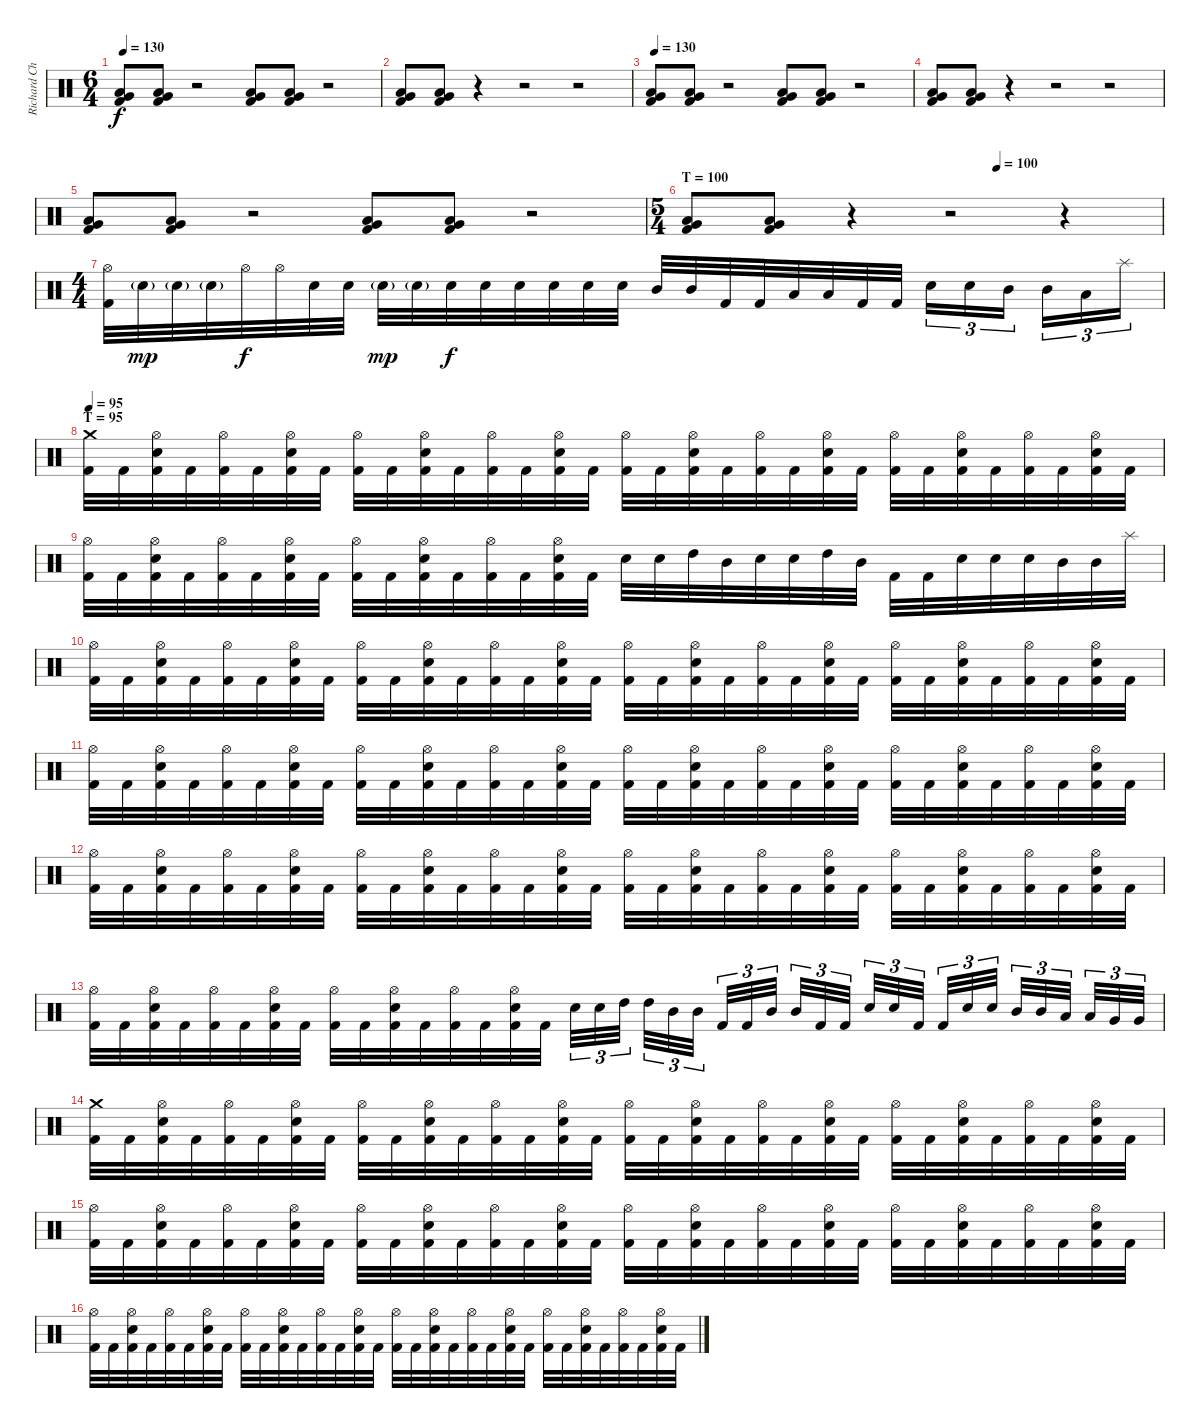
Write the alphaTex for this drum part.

\track ("Richard Christy" "Richard Ch") {instrument percussion}
\staff {score}
\articulation defaults
\ts (6 4)
\tempo 130
\clef neutral
\ks c
("Low Tom (hit)" "Very Low Tom (hit)" "Kick (hit) 2").8{dy f} ("Low Floor Tom (hit)" "Very Low Tom (hit)" "Kick (hit) 2").8 r.2 ("Low Tom (hit)" "Very Low Tom (hit)" "Kick (hit) 2").8 ("Low Floor Tom (hit)" "Very Low Tom (hit)" "Kick (hit) 2").8 r.2 |
("Low Tom (hit)" "Very Low Tom (hit)" "Kick (hit) 2").8 ("Low Floor Tom (hit)" "Very Low Tom (hit)" "Kick (hit) 2").8 r.4 r.2 r.2 |
\tempo 130
("Low Tom (hit)" "Very Low Tom (hit)" "Kick (hit) 2").8 ("Low Floor Tom (hit)" "Very Low Tom (hit)" "Kick (hit) 2").8 r.2 ("Low Tom (hit)" "Very Low Tom (hit)" "Kick (hit) 2").8 ("Low Floor Tom (hit)" "Very Low Tom (hit)" "Kick (hit) 2").8 r.2 |
("Low Tom (hit)" "Very Low Tom (hit)" "Kick (hit) 2").8 ("Low Floor Tom (hit)" "Very Low Tom (hit)" "Kick (hit) 2").8 r.4 r.2 r.2 |
("Low Tom (hit)" "Very Low Tom (hit)" "Kick (hit) 2").8 ("Low Floor Tom (hit)" "Very Low Tom (hit)" "Kick (hit) 2").8 r.2 ("Low Tom (hit)" "Very Low Tom (hit)" "Kick (hit) 2").8 ("Low Floor Tom (hit)" "Very Low Tom (hit)" "Kick (hit) 2").8 r.2 |
\ts (5 4)
\section ("" "T = 100")
\tempo (100 0.65)
("Low Tom (hit)" "Very Low Tom (hit)" "Kick (hit) 2").8 ("Low Floor Tom (hit)" "Very Low Tom (hit)" "Kick (hit) 2").8 r.4 r.2 r.4 |
\ts (4 4)
("Hi-Hat (open)" "Kick (hit) 2").32 "Electric Snare (hit)"{g}.32{dy mp} "Electric Snare (hit)"{g}.32 "Electric Snare (hit)"{g}.32 "Hi-Hat (open)".32{dy f} "Hi-Hat (open)".32 "Electric Snare (hit)".32 "Electric Snare (hit)".32 "Electric Snare (hit)"{g}.32{dy mp} "Electric Snare (hit)"{g}.32 "Electric Snare (hit)".32{dy f} "Electric Snare (hit)".32 "Electric Snare (hit)".32 "Electric Snare (hit)".32 "Electric Snare (hit)".32 "Electric Snare (hit)".32 "Mid Tom (hit)".32 "Mid Tom (hit)".32 "Kick (hit) 2".32 "Kick (hit) 2".32 "Low Tom (hit)".32 "Low Tom (hit)".32 "Kick (hit) 2".32 "Kick (hit) 2".32 "Electric Snare (hit)".16{tu (3 2)} "Electric Snare (hit)".16{tu (3 2)} "Mid Tom (hit)".16{tu (3 2)} "Mid Tom (hit)".16{tu (3 2)} "Low Tom (hit)".16{tu (3 2)} "Splash (hit)".16{tu (3 2)} |
\section ("" "T = 95")
\tempo 95
("Crash medium (hit)" "Kick (hit) 2").32 "Kick (hit) 2".32 ("Hi-Hat (open)" "Electric Snare (hit)" "Kick (hit) 2").32 "Kick (hit) 2".32 ("Hi-Hat (open)" "Kick (hit) 2").32 "Kick (hit) 2".32 ("Hi-Hat (open)" "Electric Snare (hit)" "Kick (hit) 2").32 "Kick (hit) 2".32 ("Hi-Hat (open)" "Kick (hit) 2").32 "Kick (hit) 2".32 ("Hi-Hat (open)" "Electric Snare (hit)" "Kick (hit) 2").32 "Kick (hit) 2".32 ("Hi-Hat (open)" "Kick (hit) 2").32 "Kick (hit) 2".32 ("Hi-Hat (open)" "Electric Snare (hit)" "Kick (hit) 2").32 "Kick (hit) 2".32 ("Hi-Hat (open)" "Kick (hit) 2").32 "Kick (hit) 2".32 ("Hi-Hat (open)" "Electric Snare (hit)" "Kick (hit) 2").32 "Kick (hit) 2".32 ("Hi-Hat (open)" "Kick (hit) 2").32 "Kick (hit) 2".32 ("Hi-Hat (open)" "Electric Snare (hit)" "Kick (hit) 2").32 "Kick (hit) 2".32 ("Hi-Hat (open)" "Kick (hit) 2").32 "Kick (hit) 2".32 ("Hi-Hat (open)" "Electric Snare (hit)" "Kick (hit) 2").32 "Kick (hit) 2".32 ("Hi-Hat (open)" "Kick (hit) 2").32 "Kick (hit) 2".32 ("Hi-Hat (open)" "Electric Snare (hit)" "Kick (hit) 2").32 "Kick (hit) 2".32 |
("Hi-Hat (open)" "Kick (hit) 2").32 "Kick (hit) 2".32 ("Hi-Hat (open)" "Electric Snare (hit)" "Kick (hit) 2").32 "Kick (hit) 2".32 ("Hi-Hat (open)" "Kick (hit) 2").32 "Kick (hit) 2".32 ("Hi-Hat (open)" "Electric Snare (hit)" "Kick (hit) 2").32 "Kick (hit) 2".32 ("Hi-Hat (open)" "Kick (hit) 2").32 "Kick (hit) 2".32 ("Hi-Hat (open)" "Electric Snare (hit)" "Kick (hit) 2").32 "Kick (hit) 2".32 ("Hi-Hat (open)" "Kick (hit) 2").32 "Kick (hit) 2".32 ("Hi-Hat (open)" "Electric Snare (hit)" "Kick (hit) 2").32 "Kick (hit) 2".32 "Electric Snare (hit)".32 "Electric Snare (hit)".32 "High Tom (hit)".32 "Mid Tom (hit)".32 "Electric Snare (hit)".32 "Electric Snare (hit)".32 "High Tom (hit)".32 "Mid Tom (hit)".32 "Kick (hit) 2".32 "Kick (hit) 2".32 "Electric Snare (hit)".32 "Electric Snare (hit)".32 "Electric Snare (hit)".32 "Mid Tom (hit)".32 "Mid Tom (hit)".32 "Splash (hit)".32 |
("Hi-Hat (open)" "Kick (hit) 2").32 "Kick (hit) 2".32 ("Hi-Hat (open)" "Electric Snare (hit)" "Kick (hit) 2").32 "Kick (hit) 2".32 ("Hi-Hat (open)" "Kick (hit) 2").32 "Kick (hit) 2".32 ("Hi-Hat (open)" "Electric Snare (hit)" "Kick (hit) 2").32 "Kick (hit) 2".32 ("Hi-Hat (open)" "Kick (hit) 2").32 "Kick (hit) 2".32 ("Hi-Hat (open)" "Electric Snare (hit)" "Kick (hit) 2").32 "Kick (hit) 2".32 ("Hi-Hat (open)" "Kick (hit) 2").32 "Kick (hit) 2".32 ("Hi-Hat (open)" "Electric Snare (hit)" "Kick (hit) 2").32 "Kick (hit) 2".32 ("Hi-Hat (open)" "Kick (hit) 2").32 "Kick (hit) 2".32 ("Hi-Hat (open)" "Electric Snare (hit)" "Kick (hit) 2").32 "Kick (hit) 2".32 ("Hi-Hat (open)" "Kick (hit) 2").32 "Kick (hit) 2".32 ("Hi-Hat (open)" "Electric Snare (hit)" "Kick (hit) 2").32 "Kick (hit) 2".32 ("Hi-Hat (open)" "Kick (hit) 2").32 "Kick (hit) 2".32 ("Hi-Hat (open)" "Electric Snare (hit)" "Kick (hit) 2").32 "Kick (hit) 2".32 ("Hi-Hat (open)" "Kick (hit) 2").32 "Kick (hit) 2".32 ("Hi-Hat (open)" "Electric Snare (hit)" "Kick (hit) 2").32 "Kick (hit) 2".32 |
("Hi-Hat (open)" "Kick (hit) 2").32 "Kick (hit) 2".32 ("Hi-Hat (open)" "Electric Snare (hit)" "Kick (hit) 2").32 "Kick (hit) 2".32 ("Hi-Hat (open)" "Kick (hit) 2").32 "Kick (hit) 2".32 ("Hi-Hat (open)" "Electric Snare (hit)" "Kick (hit) 2").32 "Kick (hit) 2".32 ("Hi-Hat (open)" "Kick (hit) 2").32 "Kick (hit) 2".32 ("Hi-Hat (open)" "Electric Snare (hit)" "Kick (hit) 2").32 "Kick (hit) 2".32 ("Hi-Hat (open)" "Kick (hit) 2").32 "Kick (hit) 2".32 ("Hi-Hat (open)" "Electric Snare (hit)" "Kick (hit) 2").32 "Kick (hit) 2".32 ("Hi-Hat (open)" "Kick (hit) 2").32 "Kick (hit) 2".32 ("Hi-Hat (open)" "Electric Snare (hit)" "Kick (hit) 2").32 "Kick (hit) 2".32 ("Hi-Hat (open)" "Kick (hit) 2").32 "Kick (hit) 2".32 ("Hi-Hat (open)" "Electric Snare (hit)" "Kick (hit) 2").32 "Kick (hit) 2".32 ("Hi-Hat (open)" "Kick (hit) 2").32 "Kick (hit) 2".32 ("Hi-Hat (open)" "Electric Snare (hit)" "Kick (hit) 2").32 "Kick (hit) 2".32 ("Hi-Hat (open)" "Kick (hit) 2").32 "Kick (hit) 2".32 ("Hi-Hat (open)" "Electric Snare (hit)" "Kick (hit) 2").32 "Kick (hit) 2".32 |
("Hi-Hat (open)" "Kick (hit) 2").32 "Kick (hit) 2".32 ("Hi-Hat (open)" "Electric Snare (hit)" "Kick (hit) 2").32 "Kick (hit) 2".32 ("Hi-Hat (open)" "Kick (hit) 2").32 "Kick (hit) 2".32 ("Hi-Hat (open)" "Electric Snare (hit)" "Kick (hit) 2").32 "Kick (hit) 2".32 ("Hi-Hat (open)" "Kick (hit) 2").32 "Kick (hit) 2".32 ("Hi-Hat (open)" "Electric Snare (hit)" "Kick (hit) 2").32 "Kick (hit) 2".32 ("Hi-Hat (open)" "Kick (hit) 2").32 "Kick (hit) 2".32 ("Hi-Hat (open)" "Electric Snare (hit)" "Kick (hit) 2").32 "Kick (hit) 2".32 ("Hi-Hat (open)" "Kick (hit) 2").32 "Kick (hit) 2".32 ("Hi-Hat (open)" "Electric Snare (hit)" "Kick (hit) 2").32 "Kick (hit) 2".32 ("Hi-Hat (open)" "Kick (hit) 2").32 "Kick (hit) 2".32 ("Hi-Hat (open)" "Electric Snare (hit)" "Kick (hit) 2").32 "Kick (hit) 2".32 ("Hi-Hat (open)" "Kick (hit) 2").32 "Kick (hit) 2".32 ("Hi-Hat (open)" "Electric Snare (hit)" "Kick (hit) 2").32 "Kick (hit) 2".32 ("Hi-Hat (open)" "Kick (hit) 2").32 "Kick (hit) 2".32 ("Hi-Hat (open)" "Electric Snare (hit)" "Kick (hit) 2").32 "Kick (hit) 2".32 |
("Hi-Hat (open)" "Kick (hit) 2").32 "Kick (hit) 2".32 ("Hi-Hat (open)" "Electric Snare (hit)" "Kick (hit) 2").32 "Kick (hit) 2".32 ("Hi-Hat (open)" "Kick (hit) 2").32 "Kick (hit) 2".32 ("Hi-Hat (open)" "Electric Snare (hit)" "Kick (hit) 2").32 "Kick (hit) 2".32 ("Hi-Hat (open)" "Kick (hit) 2").32 "Kick (hit) 2".32 ("Hi-Hat (open)" "Electric Snare (hit)" "Kick (hit) 2").32 "Kick (hit) 2".32 ("Hi-Hat (open)" "Kick (hit) 2").32 "Kick (hit) 2".32 ("Hi-Hat (open)" "Electric Snare (hit)" "Kick (hit) 2").32 "Kick (hit) 2".32 "Electric Snare (hit)".32{tu (3 2)} "Electric Snare (hit)".32{tu (3 2)} "High Tom (hit)".32{tu (3 2)} "High Tom (hit)".32{tu (3 2)} "Mid Tom (hit)".32{tu (3 2)} "Mid Tom (hit)".32{tu (3 2)} "Kick (hit) 2".32{tu (3 2)} "Kick (hit) 2".32{tu (3 2)} "Mid Tom (hit)".32{tu (3 2)} "Mid Tom (hit)".32{tu (3 2)} "Kick (hit) 2".32{tu (3 2)} "Kick (hit) 2".32{tu (3 2)} "Electric Snare (hit)".32{tu (3 2)} "Electric Snare (hit)".32{tu (3 2)} "Kick (hit) 2".32{tu (3 2)} "Kick (hit) 2".32{tu (3 2)} "Electric Snare (hit)".32{tu (3 2)} "Electric Snare (hit)".32{tu (3 2)} "Mid Tom (hit)".32{tu (3 2)} "Mid Tom (hit)".32{tu (3 2)} "Low Tom (hit)".32{tu (3 2)} "Low Tom (hit)".32{tu (3 2)} "Very Low Tom (hit)".32{tu (3 2)} "Very Low Tom (hit)".32{tu (3 2)} |
("Crash medium (hit)" "Kick (hit) 2").32 "Kick (hit) 2".32 ("Hi-Hat (open)" "Electric Snare (hit)" "Kick (hit) 2").32 "Kick (hit) 2".32 ("Hi-Hat (open)" "Kick (hit) 2").32 "Kick (hit) 2".32 ("Hi-Hat (open)" "Electric Snare (hit)" "Kick (hit) 2").32 "Kick (hit) 2".32 ("Hi-Hat (open)" "Kick (hit) 2").32 "Kick (hit) 2".32 ("Hi-Hat (open)" "Electric Snare (hit)" "Kick (hit) 2").32 "Kick (hit) 2".32 ("Hi-Hat (open)" "Kick (hit) 2").32 "Kick (hit) 2".32 ("Hi-Hat (open)" "Electric Snare (hit)" "Kick (hit) 2").32 "Kick (hit) 2".32 ("Hi-Hat (open)" "Kick (hit) 2").32 "Kick (hit) 2".32 ("Hi-Hat (open)" "Electric Snare (hit)" "Kick (hit) 2").32 "Kick (hit) 2".32 ("Hi-Hat (open)" "Kick (hit) 2").32 "Kick (hit) 2".32 ("Hi-Hat (open)" "Electric Snare (hit)" "Kick (hit) 2").32 "Kick (hit) 2".32 ("Hi-Hat (open)" "Kick (hit) 2").32 "Kick (hit) 2".32 ("Hi-Hat (open)" "Electric Snare (hit)" "Kick (hit) 2").32 "Kick (hit) 2".32 ("Hi-Hat (open)" "Kick (hit) 2").32 "Kick (hit) 2".32 ("Hi-Hat (open)" "Electric Snare (hit)" "Kick (hit) 2").32 "Kick (hit) 2".32 |
("Hi-Hat (open)" "Kick (hit) 2").32 "Kick (hit) 2".32 ("Hi-Hat (open)" "Electric Snare (hit)" "Kick (hit) 2").32 "Kick (hit) 2".32 ("Hi-Hat (open)" "Kick (hit) 2").32 "Kick (hit) 2".32 ("Hi-Hat (open)" "Electric Snare (hit)" "Kick (hit) 2").32 "Kick (hit) 2".32 ("Hi-Hat (open)" "Kick (hit) 2").32 "Kick (hit) 2".32 ("Hi-Hat (open)" "Electric Snare (hit)" "Kick (hit) 2").32 "Kick (hit) 2".32 ("Hi-Hat (open)" "Kick (hit) 2").32 "Kick (hit) 2".32 ("Hi-Hat (open)" "Electric Snare (hit)" "Kick (hit) 2").32 "Kick (hit) 2".32 ("Hi-Hat (open)" "Kick (hit) 2").32 "Kick (hit) 2".32 ("Hi-Hat (open)" "Electric Snare (hit)" "Kick (hit) 2").32 "Kick (hit) 2".32 ("Hi-Hat (open)" "Kick (hit) 2").32 "Kick (hit) 2".32 ("Hi-Hat (open)" "Electric Snare (hit)" "Kick (hit) 2").32 "Kick (hit) 2".32 ("Hi-Hat (open)" "Kick (hit) 2").32 "Kick (hit) 2".32 ("Hi-Hat (open)" "Electric Snare (hit)" "Kick (hit) 2").32 "Kick (hit) 2".32 ("Hi-Hat (open)" "Kick (hit) 2").32 "Kick (hit) 2".32 ("Hi-Hat (open)" "Electric Snare (hit)" "Kick (hit) 2").32 "Kick (hit) 2".32 |
("Hi-Hat (open)" "Kick (hit) 2").32 "Kick (hit) 2".32 ("Hi-Hat (open)" "Electric Snare (hit)" "Kick (hit) 2").32 "Kick (hit) 2".32 ("Hi-Hat (open)" "Kick (hit) 2").32 "Kick (hit) 2".32 ("Hi-Hat (open)" "Electric Snare (hit)" "Kick (hit) 2").32 "Kick (hit) 2".32 ("Hi-Hat (open)" "Kick (hit) 2").32 "Kick (hit) 2".32 ("Hi-Hat (open)" "Electric Snare (hit)" "Kick (hit) 2").32 "Kick (hit) 2".32 ("Hi-Hat (open)" "Kick (hit) 2").32 "Kick (hit) 2".32 ("Hi-Hat (open)" "Electric Snare (hit)" "Kick (hit) 2").32 "Kick (hit) 2".32 ("Hi-Hat (open)" "Kick (hit) 2").32 "Kick (hit) 2".32 ("Hi-Hat (open)" "Electric Snare (hit)" "Kick (hit) 2").32 "Kick (hit) 2".32 ("Hi-Hat (open)" "Kick (hit) 2").32 "Kick (hit) 2".32 ("Hi-Hat (open)" "Electric Snare (hit)" "Kick (hit) 2").32 "Kick (hit) 2".32 ("Hi-Hat (open)" "Kick (hit) 2").32 "Kick (hit) 2".32 ("Hi-Hat (open)" "Electric Snare (hit)" "Kick (hit) 2").32 "Kick (hit) 2".32 ("Hi-Hat (open)" "Kick (hit) 2").32 "Kick (hit) 2".32 ("Hi-Hat (open)" "Electric Snare (hit)" "Kick (hit) 2").32 "Kick (hit) 2".32
